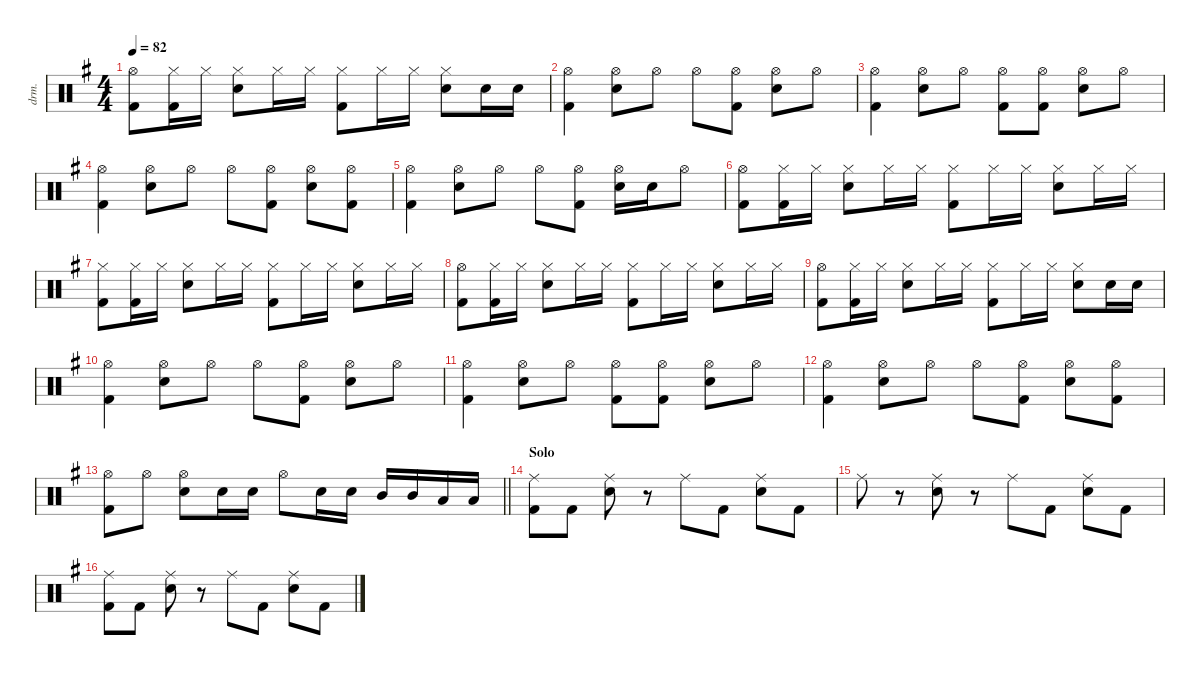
\defaultSystemsLayout 4
\hideDynamics
\bracketExtendMode nobrackets
\track ("Drums" "drm.") {instrument percussion}
\staff {score}
\articulation defaults
\ts (4 4)
\tempo 82
\clef neutral
\ks eminor
("Hi-Hat (open)"{acc forcenatural} "Kick (hit) 2"{acc forcenatural}).8{dy f} ("Hi-Hat (closed)"{acc forcenatural} "Kick (hit) 2"{acc forcenatural}).16 "Hi-Hat (closed)"{acc forcenatural}.16 ("Hi-Hat (closed)"{acc forcenatural} "Snare (hit) 2"{acc forcenatural}).8 "Hi-Hat (closed)"{acc forcenatural}.16 "Hi-Hat (closed)"{acc forcenatural}.16 ("Hi-Hat (closed)"{acc forcenatural} "Kick (hit) 2"{acc forcenatural}).8 "Hi-Hat (closed)"{acc forcenatural}.16 "Hi-Hat (closed)"{acc forcenatural}.16 ("Hi-Hat (closed)"{acc forcenatural} "Snare (hit) 2"{acc forcenatural}).8 "Snare (hit) 2"{acc forcenatural}.16 "Snare (hit) 2"{acc forcenatural}.16 |
("Hi-Hat (open)"{acc forcenatural} "Kick (hit) 2"{acc forcenatural}).4 ("Hi-Hat (open)"{acc forcenatural} "Snare (hit) 2"{acc forcenatural}).8 "Hi-Hat (open)"{acc forcenatural}.8 "Hi-Hat (open)"{acc forcenatural}.8 ("Hi-Hat (open)"{acc forcenatural} "Kick (hit) 2"{acc forcenatural}).8 ("Hi-Hat (open)"{acc forcenatural} "Snare (hit) 2"{acc forcenatural}).8 "Hi-Hat (open)"{acc forcenatural}.8 |
("Hi-Hat (open)"{acc forcenatural} "Kick (hit) 2"{acc forcenatural}).4 ("Hi-Hat (open)"{acc forcenatural} "Snare (hit) 2"{acc forcenatural}).8 "Hi-Hat (open)"{acc forcenatural}.8 ("Hi-Hat (open)"{acc forcenatural} "Kick (hit) 2"{acc forcenatural}).8 ("Hi-Hat (open)"{acc forcenatural} "Kick (hit) 2"{acc forcenatural}).8 ("Hi-Hat (open)"{acc forcenatural} "Snare (hit) 2"{acc forcenatural}).8 "Hi-Hat (open)"{acc forcenatural}.8 |
("Hi-Hat (open)"{acc forcenatural} "Kick (hit) 2"{acc forcenatural}).4 ("Hi-Hat (open)"{acc forcenatural} "Snare (hit) 2"{acc forcenatural}).8 "Hi-Hat (open)"{acc forcenatural}.8 "Hi-Hat (open)"{acc forcenatural}.8 ("Hi-Hat (open)"{acc forcenatural} "Kick (hit) 2"{acc forcenatural}).8 ("Hi-Hat (open)"{acc forcenatural} "Snare (hit) 2"{acc forcenatural}).8 ("Hi-Hat (open)"{acc forcenatural} "Kick (hit) 2"{acc forcenatural}).8 |
("Hi-Hat (open)"{acc forcenatural} "Kick (hit) 2"{acc forcenatural}).4 ("Hi-Hat (open)"{acc forcenatural} "Snare (hit) 2"{acc forcenatural}).8 "Hi-Hat (open)"{acc forcenatural}.8 "Hi-Hat (open)"{acc forcenatural}.8 ("Hi-Hat (open)"{acc forcenatural} "Kick (hit) 2"{acc forcenatural}).8 ("Hi-Hat (open)"{acc forcenatural} "Snare (hit) 2"{acc forcenatural}).16 "Snare (hit) 2"{acc forcenatural}.16 "Hi-Hat (open)"{acc forcenatural}.8 |
("Hi-Hat (open)"{acc forcenatural} "Kick (hit) 2"{acc forcenatural}).8 ("Hi-Hat (closed)"{acc forcenatural} "Kick (hit) 2"{acc forcenatural}).16 "Hi-Hat (closed)"{acc forcenatural}.16 ("Hi-Hat (closed)"{acc forcenatural} "Snare (hit) 2"{acc forcenatural}).8 "Hi-Hat (closed)"{acc forcenatural}.16 "Hi-Hat (closed)"{acc forcenatural}.16 ("Hi-Hat (closed)"{acc forcenatural} "Kick (hit) 2"{acc forcenatural}).8 "Hi-Hat (closed)"{acc forcenatural}.16 "Hi-Hat (closed)"{acc forcenatural}.16 ("Hi-Hat (closed)"{acc forcenatural} "Snare (hit) 2"{acc forcenatural}).8 "Hi-Hat (closed)"{acc forcenatural}.16 "Hi-Hat (closed)"{acc forcenatural}.16 |
("Hi-Hat (closed)"{acc forcenatural} "Kick (hit) 2"{acc forcenatural}).8 ("Hi-Hat (closed)"{acc forcenatural} "Kick (hit) 2"{acc forcenatural}).16 "Hi-Hat (closed)"{acc forcenatural}.16 ("Hi-Hat (closed)"{acc forcenatural} "Snare (hit) 2"{acc forcenatural}).8 "Hi-Hat (closed)"{acc forcenatural}.16 "Hi-Hat (closed)"{acc forcenatural}.16 ("Hi-Hat (closed)"{acc forcenatural} "Kick (hit) 2"{acc forcenatural}).8 "Hi-Hat (closed)"{acc forcenatural}.16 "Hi-Hat (closed)"{acc forcenatural}.16 ("Hi-Hat (closed)"{acc forcenatural} "Snare (hit) 2"{acc forcenatural}).8 "Hi-Hat (closed)"{acc forcenatural}.16 "Hi-Hat (closed)"{acc forcenatural}.16 |
("Hi-Hat (open)"{acc forcenatural} "Kick (hit) 2"{acc forcenatural}).8 ("Hi-Hat (closed)"{acc forcenatural} "Kick (hit) 2"{acc forcenatural}).16 "Hi-Hat (closed)"{acc forcenatural}.16 ("Hi-Hat (closed)"{acc forcenatural} "Snare (hit) 2"{acc forcenatural}).8 "Hi-Hat (closed)"{acc forcenatural}.16 "Hi-Hat (closed)"{acc forcenatural}.16 ("Hi-Hat (closed)"{acc forcenatural} "Kick (hit) 2"{acc forcenatural}).8 "Hi-Hat (closed)"{acc forcenatural}.16 "Hi-Hat (closed)"{acc forcenatural}.16 ("Hi-Hat (closed)"{acc forcenatural} "Snare (hit) 2"{acc forcenatural}).8 "Hi-Hat (closed)"{acc forcenatural}.16 "Hi-Hat (closed)"{acc forcenatural}.16 |
("Hi-Hat (open)"{acc forcenatural} "Kick (hit) 2"{acc forcenatural}).8 ("Hi-Hat (closed)"{acc forcenatural} "Kick (hit) 2"{acc forcenatural}).16 "Hi-Hat (closed)"{acc forcenatural}.16 ("Hi-Hat (closed)"{acc forcenatural} "Snare (hit) 2"{acc forcenatural}).8 "Hi-Hat (closed)"{acc forcenatural}.16 "Hi-Hat (closed)"{acc forcenatural}.16 ("Hi-Hat (closed)"{acc forcenatural} "Kick (hit) 2"{acc forcenatural}).8 "Hi-Hat (closed)"{acc forcenatural}.16 "Hi-Hat (closed)"{acc forcenatural}.16 ("Hi-Hat (closed)"{acc forcenatural} "Snare (hit) 2"{acc forcenatural}).8 "Snare (hit) 2"{acc forcenatural}.16 "Snare (hit) 2"{acc forcenatural}.16 |
("Hi-Hat (open)"{acc forcenatural} "Kick (hit) 2"{acc forcenatural}).4 ("Hi-Hat (open)"{acc forcenatural} "Snare (hit) 2"{acc forcenatural}).8 "Hi-Hat (open)"{acc forcenatural}.8 "Hi-Hat (open)"{acc forcenatural}.8 ("Hi-Hat (open)"{acc forcenatural} "Kick (hit) 2"{acc forcenatural}).8 ("Hi-Hat (open)"{acc forcenatural} "Snare (hit) 2"{acc forcenatural}).8 "Hi-Hat (open)"{acc forcenatural}.8 |
("Hi-Hat (open)"{acc forcenatural} "Kick (hit) 2"{acc forcenatural}).4 ("Hi-Hat (open)"{acc forcenatural} "Snare (hit) 2"{acc forcenatural}).8 "Hi-Hat (open)"{acc forcenatural}.8 ("Hi-Hat (open)"{acc forcenatural} "Kick (hit) 2"{acc forcenatural}).8 ("Hi-Hat (open)"{acc forcenatural} "Kick (hit) 2"{acc forcenatural}).8 ("Hi-Hat (open)"{acc forcenatural} "Snare (hit) 2"{acc forcenatural}).8 "Hi-Hat (open)"{acc forcenatural}.8 |
("Hi-Hat (open)"{acc forcenatural} "Kick (hit) 2"{acc forcenatural}).4 ("Hi-Hat (open)"{acc forcenatural} "Snare (hit) 2"{acc forcenatural}).8 "Hi-Hat (open)"{acc forcenatural}.8 "Hi-Hat (open)"{acc forcenatural}.8 ("Hi-Hat (open)"{acc forcenatural} "Kick (hit) 2"{acc forcenatural}).8 ("Hi-Hat (open)"{acc forcenatural} "Snare (hit) 2"{acc forcenatural}).8 ("Hi-Hat (open)"{acc forcenatural} "Kick (hit) 2"{acc forcenatural}).8 |
\barLineRight lightlight
("Hi-Hat (open)"{acc forcenatural} "Kick (hit) 2"{acc forcenatural}).8 "Hi-Hat (open)"{acc forcenatural}.8 ("Hi-Hat (open)"{acc forcenatural} "Snare (hit) 2"{acc forcenatural}).8 "Snare (hit) 2"{acc forcenatural}.16 "Snare (hit) 2"{acc forcenatural}.16 "Hi-Hat (open)"{acc forcenatural}.8 "Snare (hit) 2"{acc forcenatural}.16 "Snare (hit) 2"{acc forcenatural}.16 "Mid Tom (hit)"{acc forcenatural}.16 "Mid Tom (hit)"{acc forcenatural}.16 "Low Tom (hit)"{acc forcenatural}.16 "Low Tom (hit)"{acc forcenatural}.16 |
\section ("" "Solo")
("Ride (middle)"{acc forcenatural} "Kick (hit) 2"{acc forcenatural}).8 "Kick (hit) 2"{acc forcenatural}.8 ("Ride (middle)"{acc forcenatural} "Snare (hit) 2"{acc forcenatural}).8 r.8 "Ride (middle)"{acc forcenatural}.8 "Kick (hit) 2"{acc forcenatural}.8 ("Ride (middle)"{acc forcenatural} "Snare (hit) 2"{acc forcenatural}).8 "Kick (hit) 2"{acc forcenatural}.8 |
"Ride (middle)"{acc forcenatural}.8 r.8 ("Ride (middle)"{acc forcenatural} "Snare (hit) 2"{acc forcenatural}).8 r.8 "Ride (middle)"{acc forcenatural}.8 "Kick (hit) 2"{acc forcenatural}.8 ("Ride (middle)"{acc forcenatural} "Snare (hit) 2"{acc forcenatural}).8 "Kick (hit) 2"{acc forcenatural}.8 |
("Ride (middle)"{acc forcenatural} "Kick (hit) 2"{acc forcenatural}).8 "Kick (hit) 2"{acc forcenatural}.8 ("Ride (middle)"{acc forcenatural} "Snare (hit) 2"{acc forcenatural}).8 r.8 "Ride (middle)"{acc forcenatural}.8 "Kick (hit) 2"{acc forcenatural}.8 ("Ride (middle)"{acc forcenatural} "Snare (hit) 2"{acc forcenatural}).8 "Kick (hit) 2"{acc forcenatural}.8
